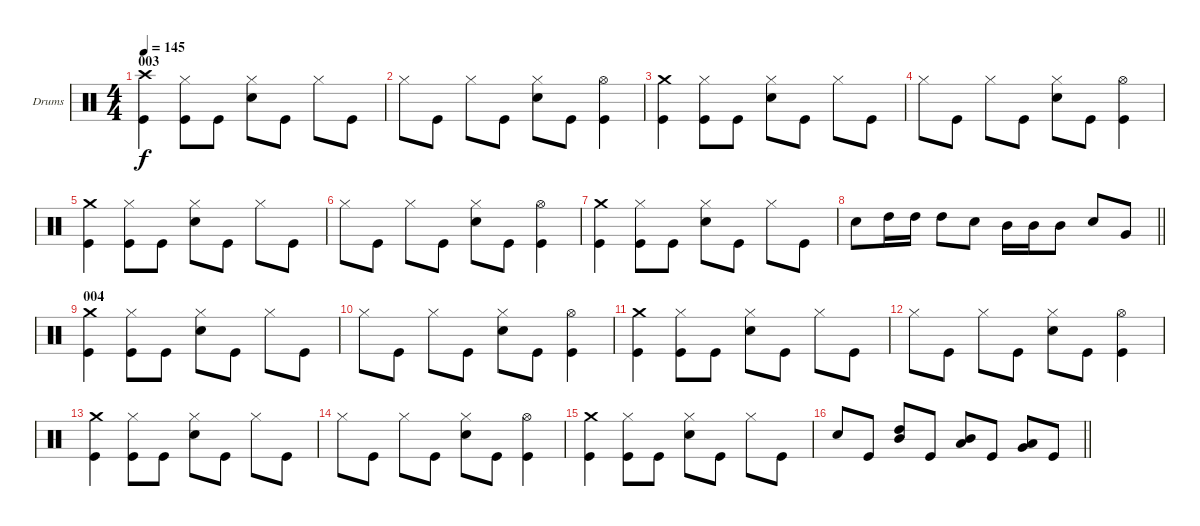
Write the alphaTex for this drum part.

\bracketExtendMode groupsimilarinstruments
\firstSystemTrackNameOrientation horizontal
\otherSystemsTrackNameOrientation horizontal
\track ("drums (Anton Zulganov)" "Drums") {instrument percussion}
\staff {score}
\articulation defaults
\ts (4 4)
\section ("" "003")
\tempo 145
\clef neutral
\ks aminor
("Kick (hit)" "Crash high (hit)").4{dy f} ("Hi-Hat (closed)" "Kick (hit)").8 "Kick (hit)".8 ("Hi-Hat (closed)" "Snare (hit) 2").8 "Kick (hit)".8 "Hi-Hat (closed)".8 "Kick (hit)".8 |
"Hi-Hat (closed)".8 "Kick (hit)".8 "Hi-Hat (closed)".8 "Kick (hit)".8 ("Hi-Hat (closed)" "Snare (hit) 2").8 "Kick (hit)".8 ("Hi-Hat (open)" "Kick (hit)").4 |
("Kick (hit)" "Crash medium (hit)").4 ("Hi-Hat (closed)" "Kick (hit)").8 "Kick (hit)".8 ("Hi-Hat (closed)" "Snare (hit) 2").8 "Kick (hit)".8 "Hi-Hat (closed)".8 "Kick (hit)".8 |
"Hi-Hat (closed)".8 "Kick (hit)".8 "Hi-Hat (closed)".8 "Kick (hit)".8 ("Hi-Hat (closed)" "Snare (hit) 2").8 "Kick (hit)".8 ("Hi-Hat (open)" "Kick (hit)").4 |
("Kick (hit)" "Crash medium (hit)").4 ("Hi-Hat (closed)" "Kick (hit)").8 "Kick (hit)".8 ("Hi-Hat (closed)" "Snare (hit) 2").8 "Kick (hit)".8 "Hi-Hat (closed)".8 "Kick (hit)".8 |
"Hi-Hat (closed)".8 "Kick (hit)".8 "Hi-Hat (closed)".8 "Kick (hit)".8 ("Hi-Hat (closed)" "Snare (hit) 2").8 "Kick (hit)".8 ("Hi-Hat (open)" "Kick (hit)").4 |
("Kick (hit)" "Crash medium (hit)").4 ("Hi-Hat (closed)" "Kick (hit)").8 "Kick (hit)".8 ("Hi-Hat (closed)" "Snare (hit) 2").8 "Kick (hit)".8 "Hi-Hat (closed)".8 "Kick (hit)".8 |
\barLineRight lightlight "Snare (hit) 2".8 "High Tom (hit)".16 "High Tom (hit)".16 "High Tom (hit)".8 "Snare (hit) 2".8 "Mid Tom (hit)".16 "Mid Tom (hit)".16 "Mid Tom (hit)".8 "Snare (hit) 2".8 "Very Low Tom (hit)".8
|
\section ("" "004")
("Crash medium (hit)" "Kick (hit)").4 ("Hi-Hat (closed)" "Kick (hit)").8 "Kick (hit)".8 ("Hi-Hat (closed)" "Snare (hit) 2").8 "Kick (hit)".8 "Hi-Hat (closed)".8 "Kick (hit)".8 |
"Hi-Hat (closed)".8 "Kick (hit)".8 "Hi-Hat (closed)".8 "Kick (hit)".8 ("Hi-Hat (closed)" "Snare (hit) 2").8 "Kick (hit)".8 ("Hi-Hat (open)" "Kick (hit)").4 |
("Crash medium (hit)" "Kick (hit)").4 ("Hi-Hat (closed)" "Kick (hit)").8 "Kick (hit)".8 ("Hi-Hat (closed)" "Snare (hit) 2").8 "Kick (hit)".8 "Hi-Hat (closed)".8 "Kick (hit)".8 |
"Hi-Hat (closed)".8 "Kick (hit)".8 "Hi-Hat (closed)".8 "Kick (hit)".8 ("Hi-Hat (closed)" "Snare (hit) 2").8 "Kick (hit)".8 ("Hi-Hat (open)" "Kick (hit)").4 |
("Crash medium (hit)" "Kick (hit)").4 ("Hi-Hat (closed)" "Kick (hit)").8 "Kick (hit)".8 ("Hi-Hat (closed)" "Snare (hit) 2").8 "Kick (hit)".8 "Hi-Hat (closed)".8 "Kick (hit)".8 |
"Hi-Hat (closed)".8 "Kick (hit)".8 "Hi-Hat (closed)".8 "Kick (hit)".8 ("Hi-Hat (closed)" "Snare (hit) 2").8 "Kick (hit)".8 ("Hi-Hat (open)" "Kick (hit)").4 |
("Crash medium (hit)" "Kick (hit)").4 ("Hi-Hat (closed)" "Kick (hit)").8 "Kick (hit)".8 ("Hi-Hat (closed)" "Snare (hit) 2").8 "Kick (hit)".8 "Hi-Hat (closed)".8 "Kick (hit)".8 |
\barLineRight lightlight "Snare (hit) 2".8 "Kick (hit)".8
("High Tom (hit)" "Mid Tom (hit)").8 "Kick (hit)".8 ("Mid Tom (hit)" "Low Tom (hit)").8 "Kick (hit)".8 ("Low Tom (hit)" "Very Low Tom (hit)").8 "Kick (hit)".8
